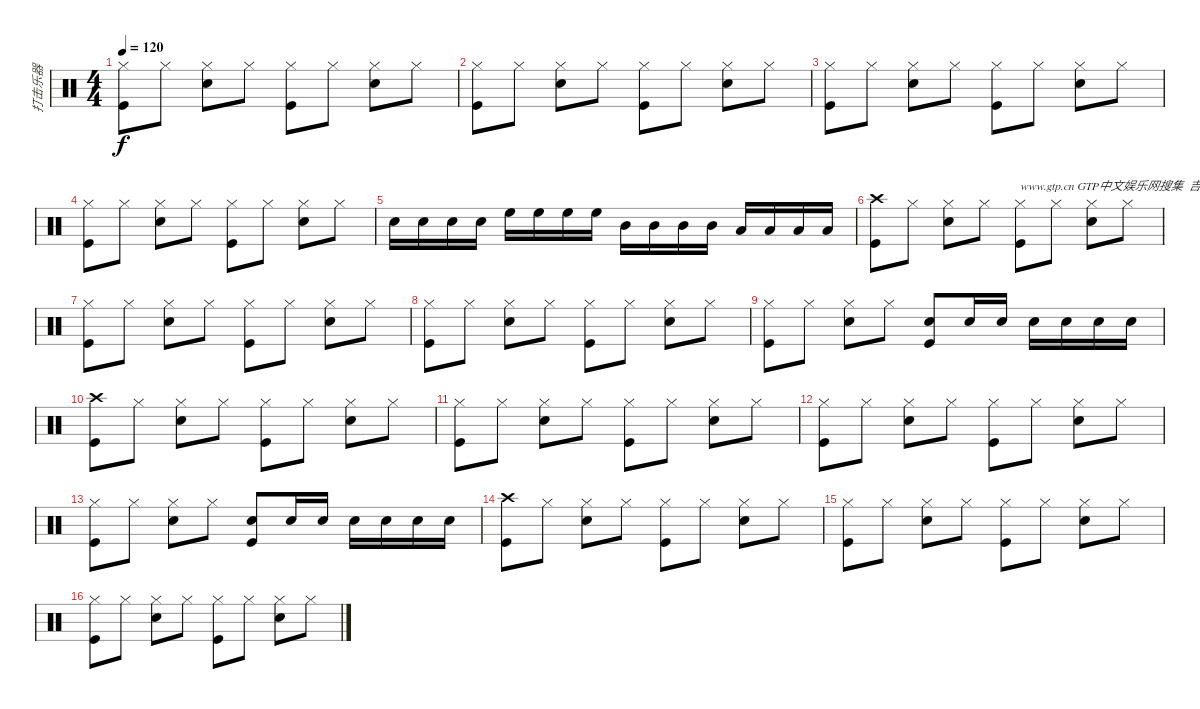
\track ("打击乐器" "打击乐器") {instrument percussion}
\staff {score}
\articulation defaults
\ts (4 4)
\tempo 120
\clef neutral
\ks c
("Hi-Hat (closed)" "Kick (hit)").8{dy f} "Hi-Hat (closed)".8 ("Hi-Hat (closed)" "Electric Snare (hit)").8 "Hi-Hat (closed)".8 ("Hi-Hat (closed)" "Kick (hit)").8 "Hi-Hat (closed)".8 ("Hi-Hat (closed)" "Electric Snare (hit)").8 "Hi-Hat (closed)".8 |
("Hi-Hat (closed)" "Kick (hit)").8 "Hi-Hat (closed)".8 ("Hi-Hat (closed)" "Electric Snare (hit)").8 "Hi-Hat (closed)".8 ("Hi-Hat (closed)" "Kick (hit)").8 "Hi-Hat (closed)".8 ("Hi-Hat (closed)" "Electric Snare (hit)").8 "Hi-Hat (closed)".8 |
("Hi-Hat (closed)" "Kick (hit)").8 "Hi-Hat (closed)".8 ("Hi-Hat (closed)" "Electric Snare (hit)").8 "Hi-Hat (closed)".8 ("Hi-Hat (closed)" "Kick (hit)").8 "Hi-Hat (closed)".8 ("Hi-Hat (closed)" "Electric Snare (hit)").8 "Hi-Hat (closed)".8 |
("Hi-Hat (closed)" "Kick (hit)").8 "Hi-Hat (closed)".8 ("Hi-Hat (closed)" "Electric Snare (hit)").8 "Hi-Hat (closed)".8 ("Hi-Hat (closed)" "Kick (hit)").8 "Hi-Hat (closed)".8 ("Hi-Hat (closed)" "Electric Snare (hit)").8 "Hi-Hat (closed)".8 |
"Electric Snare (hit)".16 "Electric Snare (hit)".16 "Electric Snare (hit)".16 "Electric Snare (hit)".16 "High Floor Tom (hit)".16 "High Floor Tom (hit)".16 "High Floor Tom (hit)".16 "High Floor Tom (hit)".16 "Mid Tom (hit)".16 "Mid Tom (hit)".16 "Mid Tom (hit)".16 "Mid Tom (hit)".16 "Low Floor Tom (hit)".16 "Low Floor Tom (hit)".16 "Low Floor Tom (hit)".16 "Low Floor Tom (hit)".16 |
("Crash high (hit)" "Kick (hit)").8 "Hi-Hat (closed)".8 ("Hi-Hat (closed)" "Electric Snare (hit)").8 "Hi-Hat (closed)".8 ("Hi-Hat (closed)" "Kick (hit)").8{txt "www.gtp.cn GTP中文娱乐网搜集  吉它手的好去处"} "Hi-Hat (closed)".8 ("Hi-Hat (closed)" "Electric Snare (hit)").8 "Hi-Hat (closed)".8 |
("Hi-Hat (closed)" "Kick (hit)").8 "Hi-Hat (closed)".8 ("Hi-Hat (closed)" "Electric Snare (hit)").8 "Hi-Hat (closed)".8 ("Hi-Hat (closed)" "Kick (hit)").8 "Hi-Hat (closed)".8 ("Hi-Hat (closed)" "Electric Snare (hit)").8 "Hi-Hat (closed)".8 |
("Hi-Hat (closed)" "Kick (hit)").8 "Hi-Hat (closed)".8 ("Hi-Hat (closed)" "Electric Snare (hit)").8 "Hi-Hat (closed)".8 ("Hi-Hat (closed)" "Kick (hit)").8 "Hi-Hat (closed)".8 ("Hi-Hat (closed)" "Electric Snare (hit)").8 "Hi-Hat (closed)".8 |
("Hi-Hat (closed)" "Kick (hit)").8 "Hi-Hat (closed)".8 ("Hi-Hat (closed)" "Electric Snare (hit)").8 "Hi-Hat (closed)".8 ("Electric Snare (hit)" "Kick (hit)").8 "Electric Snare (hit)".16 "Electric Snare (hit)".16 "Electric Snare (hit)".16 "Electric Snare (hit)".16 "Electric Snare (hit)".16 "Electric Snare (hit)".16 |
("Crash high (hit)" "Kick (hit)").8 "Hi-Hat (closed)".8 ("Hi-Hat (closed)" "Electric Snare (hit)").8 "Hi-Hat (closed)".8 ("Hi-Hat (closed)" "Kick (hit)").8 "Hi-Hat (closed)".8 ("Hi-Hat (closed)" "Electric Snare (hit)").8 "Hi-Hat (closed)".8 |
("Hi-Hat (closed)" "Kick (hit)").8 "Hi-Hat (closed)".8 ("Hi-Hat (closed)" "Electric Snare (hit)").8 "Hi-Hat (closed)".8 ("Hi-Hat (closed)" "Kick (hit)").8 "Hi-Hat (closed)".8 ("Hi-Hat (closed)" "Electric Snare (hit)").8 "Hi-Hat (closed)".8 |
("Hi-Hat (closed)" "Kick (hit)").8 "Hi-Hat (closed)".8 ("Hi-Hat (closed)" "Electric Snare (hit)").8 "Hi-Hat (closed)".8 ("Hi-Hat (closed)" "Kick (hit)").8 "Hi-Hat (closed)".8 ("Hi-Hat (closed)" "Electric Snare (hit)").8 "Hi-Hat (closed)".8 |
("Hi-Hat (closed)" "Kick (hit)").8 "Hi-Hat (closed)".8 ("Hi-Hat (closed)" "Electric Snare (hit)").8 "Hi-Hat (closed)".8 ("Electric Snare (hit)" "Kick (hit)").8 "Electric Snare (hit)".16 "Electric Snare (hit)".16 "Electric Snare (hit)".16 "Electric Snare (hit)".16 "Electric Snare (hit)".16 "Electric Snare (hit)".16 |
("Crash high (hit)" "Kick (hit)").8 "Hi-Hat (closed)".8 ("Hi-Hat (closed)" "Electric Snare (hit)").8 "Hi-Hat (closed)".8 ("Hi-Hat (closed)" "Kick (hit)").8 "Hi-Hat (closed)".8 ("Hi-Hat (closed)" "Electric Snare (hit)").8 "Hi-Hat (closed)".8 |
("Hi-Hat (closed)" "Kick (hit)").8 "Hi-Hat (closed)".8 ("Hi-Hat (closed)" "Electric Snare (hit)").8 "Hi-Hat (closed)".8 ("Hi-Hat (closed)" "Kick (hit)").8 "Hi-Hat (closed)".8 ("Hi-Hat (closed)" "Electric Snare (hit)").8 "Hi-Hat (closed)".8 |
("Hi-Hat (closed)" "Kick (hit)").8 "Hi-Hat (closed)".8 ("Hi-Hat (closed)" "Electric Snare (hit)").8 "Hi-Hat (closed)".8 ("Hi-Hat (closed)" "Kick (hit)").8 "Hi-Hat (closed)".8 ("Hi-Hat (closed)" "Electric Snare (hit)").8 "Hi-Hat (closed)".8
